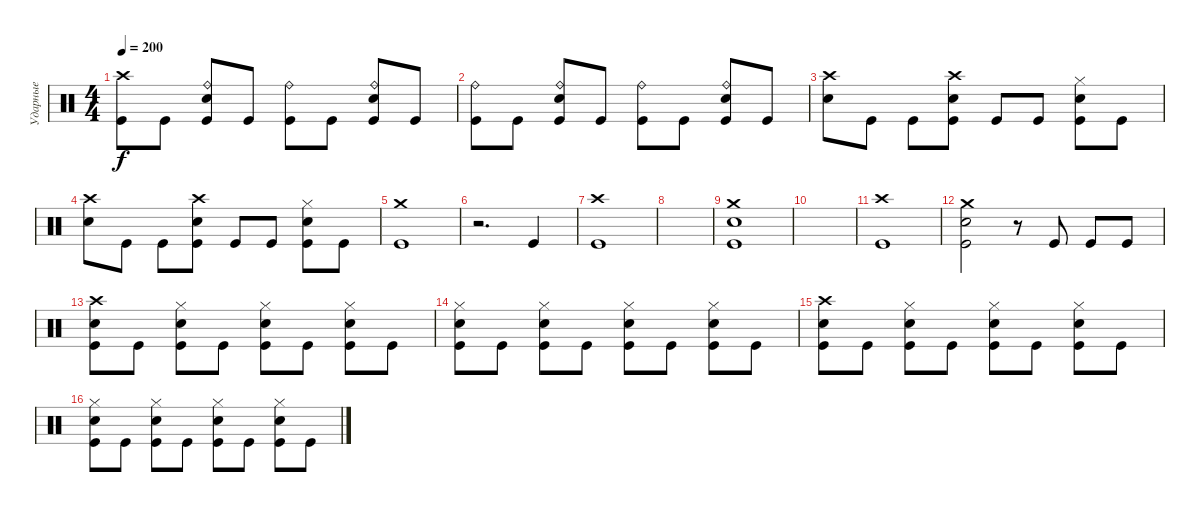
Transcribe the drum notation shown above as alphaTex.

\track ("Ударные" "Ударные") {instrument percussion}
\staff {score}
\articulation defaults
\ts (4 4)
\tempo 200
\clef neutral
\ks c
("Crash high (hit)" "Kick (hit)").8{dy f} "Kick (hit)".8 ("Ride (bell)" "Electric Snare (hit)" "Kick (hit)").8 "Kick (hit)".8 ("Ride (bell)" "Kick (hit)").8 "Kick (hit)".8 ("Ride (bell)" "Electric Snare (hit)" "Kick (hit)").8 "Kick (hit)".8 |
("Ride (bell)" "Kick (hit)").8 "Kick (hit)".8 ("Ride (bell)" "Electric Snare (hit)" "Kick (hit)").8 "Kick (hit)".8 ("Ride (bell)" "Kick (hit)").8 "Kick (hit)".8 ("Ride (bell)" "Electric Snare (hit)" "Kick (hit)").8 "Kick (hit)".8 |
("Crash high (hit)" "Electric Snare (hit)").8 "Kick (hit)".8 "Kick (hit)".8 ("Crash high (hit)" "Electric Snare (hit)" "Kick (hit)").8 "Kick (hit)".8 "Kick (hit)".8 ("Hi-Hat (closed)" "Electric Snare (hit)" "Kick (hit)").8 "Kick (hit)".8 |
("Crash high (hit)" "Electric Snare (hit)").8 "Kick (hit)".8 "Kick (hit)".8 ("Crash high (hit)" "Electric Snare (hit)" "Kick (hit)").8 "Kick (hit)".8 "Kick (hit)".8 ("Hi-Hat (closed)" "Electric Snare (hit)" "Kick (hit)").8 "Kick (hit)".8 |
("Crash medium (hit)" "Kick (hit)").1 |
r.2{d} "Kick (hit)".4 |
("Crash high (hit)" "Kick (hit)").1 |
|
("Crash medium (hit)" "Electric Snare (hit)" "Kick (hit)").1 |
|
("Crash high (hit)" "Kick (hit)").1 |
("Crash medium (hit)" "Electric Snare (hit)" "Kick (hit)").2 r.8 "Kick (hit)".8 "Kick (hit)".8 "Kick (hit)".8 |
("Crash high (hit)" "Electric Snare (hit)" "Kick (hit)").8 "Kick (hit)".8 ("Hi-Hat (closed)" "Electric Snare (hit)" "Kick (hit)").8 "Kick (hit)".8 ("Hi-Hat (closed)" "Electric Snare (hit)" "Kick (hit)").8 "Kick (hit)".8 ("Hi-Hat (closed)" "Electric Snare (hit)" "Kick (hit)").8 "Kick (hit)".8 |
("Hi-Hat (closed)" "Electric Snare (hit)" "Kick (hit)").8 "Kick (hit)".8 ("Hi-Hat (closed)" "Electric Snare (hit)" "Kick (hit)").8 "Kick (hit)".8 ("Hi-Hat (closed)" "Electric Snare (hit)" "Kick (hit)").8 "Kick (hit)".8 ("Hi-Hat (closed)" "Electric Snare (hit)" "Kick (hit)").8 "Kick (hit)".8 |
("Crash high (hit)" "Electric Snare (hit)" "Kick (hit)").8 "Kick (hit)".8 ("Hi-Hat (closed)" "Electric Snare (hit)" "Kick (hit)").8 "Kick (hit)".8 ("Hi-Hat (closed)" "Electric Snare (hit)" "Kick (hit)").8 "Kick (hit)".8 ("Hi-Hat (closed)" "Electric Snare (hit)" "Kick (hit)").8 "Kick (hit)".8 |
("Hi-Hat (closed)" "Electric Snare (hit)" "Kick (hit)").8 "Kick (hit)".8 ("Hi-Hat (closed)" "Electric Snare (hit)" "Kick (hit)").8 "Kick (hit)".8 ("Hi-Hat (closed)" "Electric Snare (hit)" "Kick (hit)").8 "Kick (hit)".8 ("Hi-Hat (closed)" "Electric Snare (hit)" "Kick (hit)").8 "Kick (hit)".8
